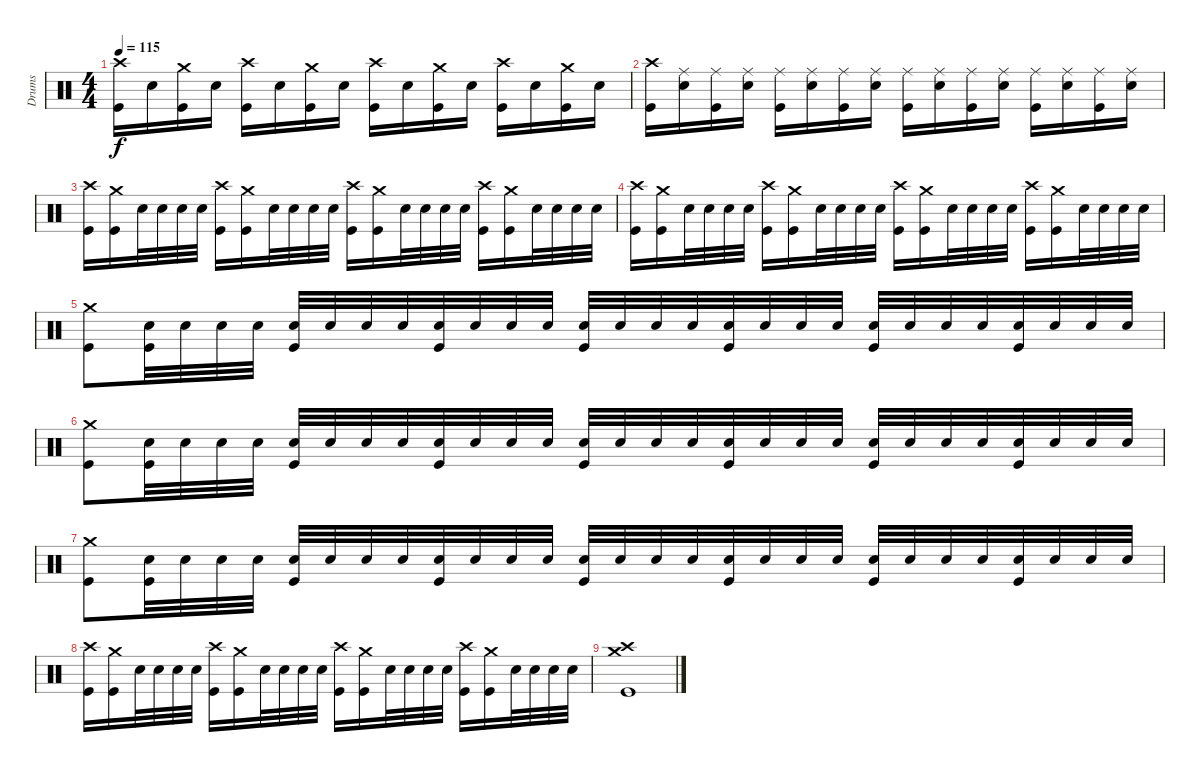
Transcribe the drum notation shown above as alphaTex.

\track ("Drums" "Drums") {instrument percussion}
\staff {score}
\articulation defaults
\ts (4 4)
\tempo 115
\clef neutral
\ks c
("Crash high (hit)" "Kick (hit)").16{dy f} "Electric Snare (hit)".16 ("Crash medium (hit)" "Kick (hit)").16 "Electric Snare (hit)".16 ("Crash high (hit)" "Kick (hit)").16 "Electric Snare (hit)".16 ("Crash medium (hit)" "Kick (hit)").16 "Electric Snare (hit)".16 ("Crash high (hit)" "Kick (hit)").16 "Electric Snare (hit)".16 ("Crash medium (hit)" "Kick (hit)").16 "Electric Snare (hit)".16 ("Crash high (hit)" "Kick (hit)").16 "Electric Snare (hit)".16 ("Crash medium (hit)" "Kick (hit)").16 "Electric Snare (hit)".16 |
("Crash high (hit)" "Kick (hit)").16 ("Ride (middle)" "Electric Snare (hit)").16 ("Ride (middle)" "Kick (hit)").16 ("Ride (middle)" "Electric Snare (hit)").16 ("Ride (middle)" "Kick (hit)").16 ("Ride (middle)" "Electric Snare (hit)").16 ("Ride (middle)" "Kick (hit)").16 ("Ride (middle)" "Electric Snare (hit)").16 ("Ride (middle)" "Kick (hit)").16 ("Ride (middle)" "Electric Snare (hit)").16 ("Ride (middle)" "Kick (hit)").16 ("Ride (middle)" "Electric Snare (hit)").16 ("Ride (middle)" "Kick (hit)").16 ("Ride (middle)" "Electric Snare (hit)").16 ("Ride (middle)" "Kick (hit)").16 ("Ride (middle)" "Electric Snare (hit)").16 |
("Crash high (hit)" "Kick (hit)").16 ("Crash medium (hit)" "Kick (hit)").16 "Electric Snare (hit)".32 "Electric Snare (hit)".32 "Electric Snare (hit)".32 "Electric Snare (hit)".32 ("Crash high (hit)" "Kick (hit)").16 ("Crash medium (hit)" "Kick (hit)").16 "Electric Snare (hit)".32 "Electric Snare (hit)".32 "Electric Snare (hit)".32 "Electric Snare (hit)".32 ("Crash high (hit)" "Kick (hit)").16 ("Crash medium (hit)" "Kick (hit)").16 "Electric Snare (hit)".32 "Electric Snare (hit)".32 "Electric Snare (hit)".32 "Electric Snare (hit)".32 ("Crash high (hit)" "Kick (hit)").16 ("Crash medium (hit)" "Kick (hit)").16 "Electric Snare (hit)".32 "Electric Snare (hit)".32 "Electric Snare (hit)".32 "Electric Snare (hit)".32 |
("Crash high (hit)" "Kick (hit)").16 ("Crash medium (hit)" "Kick (hit)").16 "Electric Snare (hit)".32 "Electric Snare (hit)".32 "Electric Snare (hit)".32 "Electric Snare (hit)".32 ("Crash high (hit)" "Kick (hit)").16 ("Crash medium (hit)" "Kick (hit)").16 "Electric Snare (hit)".32 "Electric Snare (hit)".32 "Electric Snare (hit)".32 "Electric Snare (hit)".32 ("Crash high (hit)" "Kick (hit)").16 ("Crash medium (hit)" "Kick (hit)").16 "Electric Snare (hit)".32 "Electric Snare (hit)".32 "Electric Snare (hit)".32 "Electric Snare (hit)".32 ("Crash high (hit)" "Kick (hit)").16 ("Crash medium (hit)" "Kick (hit)").16 "Electric Snare (hit)".32 "Electric Snare (hit)".32 "Electric Snare (hit)".32 "Electric Snare (hit)".32 |
("Crash medium (hit)" "Kick (hit)").8 ("Electric Snare (hit)" "Kick (hit)").32 "Electric Snare (hit)".32 "Electric Snare (hit)".32 "Electric Snare (hit)".32 ("Electric Snare (hit)" "Kick (hit)").32 "Electric Snare (hit)".32 "Electric Snare (hit)".32 "Electric Snare (hit)".32 ("Electric Snare (hit)" "Kick (hit)").32 "Electric Snare (hit)".32 "Electric Snare (hit)".32 "Electric Snare (hit)".32 ("Electric Snare (hit)" "Kick (hit)").32 "Electric Snare (hit)".32 "Electric Snare (hit)".32 "Electric Snare (hit)".32 ("Electric Snare (hit)" "Kick (hit)").32 "Electric Snare (hit)".32 "Electric Snare (hit)".32 "Electric Snare (hit)".32 ("Electric Snare (hit)" "Kick (hit)").32 "Electric Snare (hit)".32 "Electric Snare (hit)".32 "Electric Snare (hit)".32 ("Electric Snare (hit)" "Kick (hit)").32 "Electric Snare (hit)".32 "Electric Snare (hit)".32 "Electric Snare (hit)".32 |
("Crash medium (hit)" "Kick (hit)").8 ("Electric Snare (hit)" "Kick (hit)").32 "Electric Snare (hit)".32 "Electric Snare (hit)".32 "Electric Snare (hit)".32 ("Electric Snare (hit)" "Kick (hit)").32 "Electric Snare (hit)".32 "Electric Snare (hit)".32 "Electric Snare (hit)".32 ("Electric Snare (hit)" "Kick (hit)").32 "Electric Snare (hit)".32 "Electric Snare (hit)".32 "Electric Snare (hit)".32 ("Electric Snare (hit)" "Kick (hit)").32 "Electric Snare (hit)".32 "Electric Snare (hit)".32 "Electric Snare (hit)".32 ("Electric Snare (hit)" "Kick (hit)").32 "Electric Snare (hit)".32 "Electric Snare (hit)".32 "Electric Snare (hit)".32 ("Electric Snare (hit)" "Kick (hit)").32 "Electric Snare (hit)".32 "Electric Snare (hit)".32 "Electric Snare (hit)".32 ("Electric Snare (hit)" "Kick (hit)").32 "Electric Snare (hit)".32 "Electric Snare (hit)".32 "Electric Snare (hit)".32 |
("Crash medium (hit)" "Kick (hit)").8 ("Electric Snare (hit)" "Kick (hit)").32 "Electric Snare (hit)".32 "Electric Snare (hit)".32 "Electric Snare (hit)".32 ("Electric Snare (hit)" "Kick (hit)").32 "Electric Snare (hit)".32 "Electric Snare (hit)".32 "Electric Snare (hit)".32 ("Electric Snare (hit)" "Kick (hit)").32 "Electric Snare (hit)".32 "Electric Snare (hit)".32 "Electric Snare (hit)".32 ("Electric Snare (hit)" "Kick (hit)").32 "Electric Snare (hit)".32 "Electric Snare (hit)".32 "Electric Snare (hit)".32 ("Electric Snare (hit)" "Kick (hit)").32 "Electric Snare (hit)".32 "Electric Snare (hit)".32 "Electric Snare (hit)".32 ("Electric Snare (hit)" "Kick (hit)").32 "Electric Snare (hit)".32 "Electric Snare (hit)".32 "Electric Snare (hit)".32 ("Electric Snare (hit)" "Kick (hit)").32 "Electric Snare (hit)".32 "Electric Snare (hit)".32 "Electric Snare (hit)".32 |
("Crash high (hit)" "Kick (hit)").16 ("Crash medium (hit)" "Kick (hit)").16 "Electric Snare (hit)".32 "Electric Snare (hit)".32 "Electric Snare (hit)".32 "Electric Snare (hit)".32 ("Crash high (hit)" "Kick (hit)").16 ("Crash medium (hit)" "Kick (hit)").16 "Electric Snare (hit)".32 "Electric Snare (hit)".32 "Electric Snare (hit)".32 "Electric Snare (hit)".32 ("Crash high (hit)" "Kick (hit)").16 ("Crash medium (hit)" "Kick (hit)").16 "Electric Snare (hit)".32 "Electric Snare (hit)".32 "Electric Snare (hit)".32 "Electric Snare (hit)".32 ("Crash high (hit)" "Kick (hit)").16 ("Crash medium (hit)" "Kick (hit)").16 "Electric Snare (hit)".32 "Electric Snare (hit)".32 "Electric Snare (hit)".32 "Electric Snare (hit)".32 |
("Crash medium (hit)" "Crash high (hit)" "Kick (hit)").1
